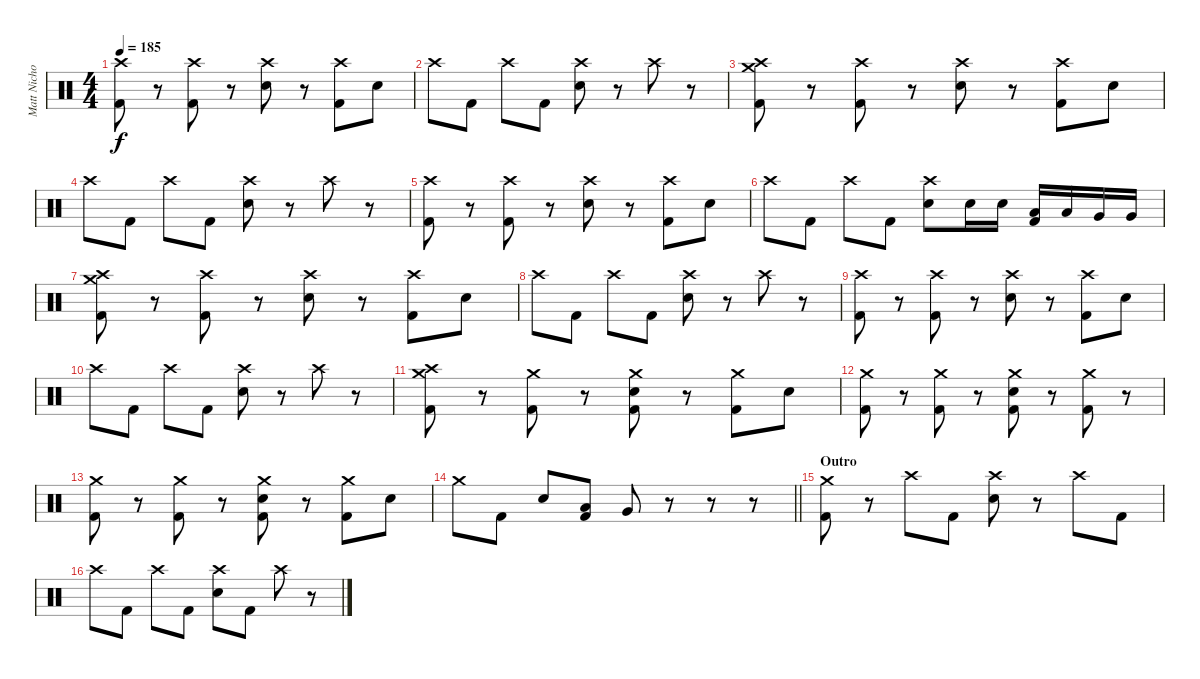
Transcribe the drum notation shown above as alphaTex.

\track ("Matt Nicholls" "Matt Nicho") {instrument percussion}
\staff {score}
\articulation defaults
\ts (4 4)
\tempo 185
\clef neutral
\ks c
("Crash high (hit)" "Kick (hit) 2").8{dy f} r.8 ("Crash high (hit)" "Kick (hit) 2").8 r.8 ("Crash high (hit)" "Electric Snare (hit)").8 r.8 ("Crash high (hit)" "Kick (hit) 2").8 "Electric Snare (hit)".8 |
"Crash high (hit)".8 "Kick (hit) 2".8 "Crash high (hit)".8 "Kick (hit) 2".8 ("Crash high (hit)" "Electric Snare (hit)").8 r.8 "Crash high (hit)".8 r.8 |
("Crash medium (hit)" "Crash high (hit)" "Kick (hit) 2").8 r.8 ("Crash high (hit)" "Kick (hit) 2").8 r.8 ("Crash high (hit)" "Electric Snare (hit)").8 r.8 ("Crash high (hit)" "Kick (hit) 2").8 "Electric Snare (hit)".8 |
"Crash high (hit)".8 "Kick (hit) 2".8 "Crash high (hit)".8 "Kick (hit) 2".8 ("Crash high (hit)" "Electric Snare (hit)").8 r.8 "Crash high (hit)".8 r.8 |
("Crash high (hit)" "Kick (hit) 2").8 r.8 ("Crash high (hit)" "Kick (hit) 2").8 r.8 ("Crash high (hit)" "Electric Snare (hit)").8 r.8 ("Crash high (hit)" "Kick (hit) 2").8 "Electric Snare (hit)".8 |
"Crash high (hit)".8 "Kick (hit) 2".8 "Crash high (hit)".8 "Kick (hit) 2".8 ("Crash high (hit)" "Electric Snare (hit)").8 "Electric Snare (hit)".16 "Electric Snare (hit)".16 ("Low Tom (hit)" "Kick (hit) 2").16 "Low Tom (hit)".16 "Very Low Tom (hit)".16 "Very Low Tom (hit)".16 |
("Crash medium (hit)" "Crash high (hit)" "Kick (hit) 2").8 r.8 ("Crash high (hit)" "Kick (hit) 2").8 r.8 ("Crash high (hit)" "Electric Snare (hit)").8 r.8 ("Crash high (hit)" "Kick (hit) 2").8 "Electric Snare (hit)".8 |
"Crash high (hit)".8 "Kick (hit) 2".8 "Crash high (hit)".8 "Kick (hit) 2".8 ("Crash high (hit)" "Electric Snare (hit)").8 r.8 "Crash high (hit)".8 r.8 |
("Crash high (hit)" "Kick (hit) 2").8 r.8 ("Crash high (hit)" "Kick (hit) 2").8 r.8 ("Crash high (hit)" "Electric Snare (hit)").8 r.8 ("Crash high (hit)" "Kick (hit) 2").8 "Electric Snare (hit)".8 |
"Crash high (hit)".8 "Kick (hit) 2".8 "Crash high (hit)".8 "Kick (hit) 2".8 ("Crash high (hit)" "Electric Snare (hit)").8 r.8 "Crash high (hit)".8 r.8 |
("Crash medium (hit)" "Crash high (hit)" "Kick (hit) 2").8 r.8 ("Crash medium (hit)" "Kick (hit) 2").8 r.8 ("Crash medium (hit)" "Electric Snare (hit)" "Kick (hit) 2").8 r.8 ("Crash medium (hit)" "Kick (hit) 2").8 "Electric Snare (hit)".8 |
("Crash medium (hit)" "Kick (hit) 2").8 r.8 ("Crash medium (hit)" "Kick (hit) 2").8 r.8 ("Crash medium (hit)" "Electric Snare (hit)" "Kick (hit) 2").8 r.8 ("Crash medium (hit)" "Kick (hit) 2").8 r.8 |
("Crash medium (hit)" "Kick (hit) 2").8 r.8 ("Crash medium (hit)" "Kick (hit) 2").8 r.8 ("Crash medium (hit)" "Electric Snare (hit)" "Kick (hit) 2").8 r.8 ("Crash medium (hit)" "Kick (hit) 2").8 "Electric Snare (hit)".8 |
\barLineRight lightlight "Crash medium (hit)".8 "Kick (hit) 2".8 "Electric Snare (hit)".8
("Low Tom (hit)" "Kick (hit) 2").8 "Very Low Tom (hit)".8 r.8 r.8 r.8 |
\section ("" "Outro")
("Crash medium (hit)" "Kick (hit) 2").8 r.8 "Crash high (hit)".8 "Kick (hit) 2".8 ("Crash high (hit)" "Electric Snare (hit)").8 r.8 "Crash high (hit)".8 "Kick (hit) 2".8 |
"Crash high (hit)".8 "Kick (hit) 2".8 "Crash high (hit)".8 "Kick (hit) 2".8 ("Crash high (hit)" "Electric Snare (hit)").8 "Kick (hit) 2".8 "Crash high (hit)".8 r.8
